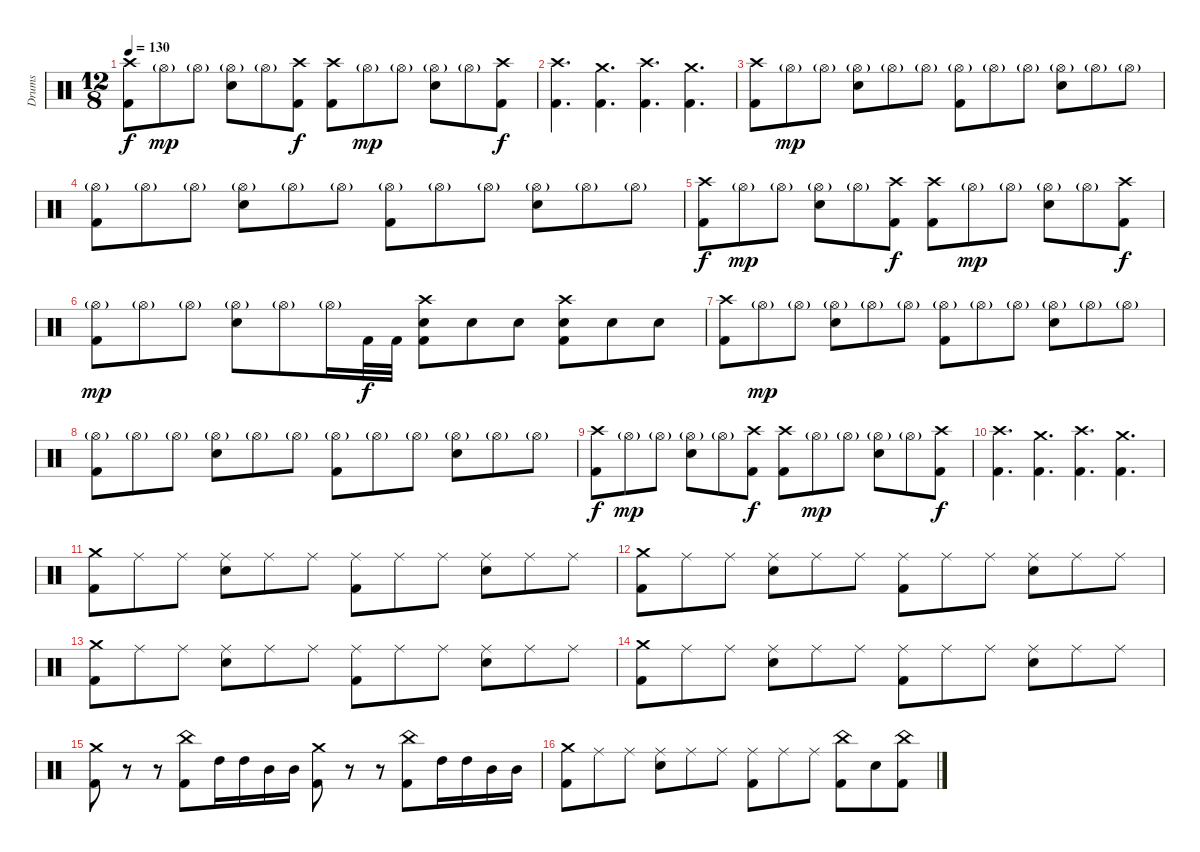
\track ("Drums" "Drums") {instrument percussion}
\staff {score}
\articulation defaults
\ts (12 8)
\tempo 130
\clef neutral
\ks c
("Crash high (hit)" "Kick (hit) 2").8{dy f} "Hi-Hat (open)"{g}.8{dy mp} "Hi-Hat (open)"{g}.8 ("Hi-Hat (open)"{g} "Electric Snare (hit)").8 "Hi-Hat (open)"{g}.8 ("Crash high (hit)" "Kick (hit) 2").8{dy f} ("Crash high (hit)" "Kick (hit) 2").8 "Hi-Hat (open)"{g}.8{dy mp} "Hi-Hat (open)"{g}.8 ("Hi-Hat (open)"{g} "Electric Snare (hit)").8 "Hi-Hat (open)"{g}.8 ("Crash high (hit)" "Kick (hit) 2").8{dy f} |
("Crash high (hit)" "Kick (hit) 2").4{d} ("Crash medium (hit)" "Kick (hit) 2").4{d} ("Crash high (hit)" "Kick (hit) 2").4{d} ("Crash medium (hit)" "Kick (hit) 2").4{d} |
("Crash high (hit)" "Kick (hit) 2").8 "Hi-Hat (open)"{g}.8{dy mp} "Hi-Hat (open)"{g}.8 ("Hi-Hat (open)"{g} "Electric Snare (hit)").8 "Hi-Hat (open)"{g}.8 "Hi-Hat (open)"{g}.8 ("Hi-Hat (open)"{g} "Kick (hit) 2").8 "Hi-Hat (open)"{g}.8 "Hi-Hat (open)"{g}.8 ("Hi-Hat (open)"{g} "Electric Snare (hit)").8 "Hi-Hat (open)"{g}.8 "Hi-Hat (open)"{g}.8 |
("Hi-Hat (open)"{g} "Kick (hit) 2").8 "Hi-Hat (open)"{g}.8 "Hi-Hat (open)"{g}.8 ("Hi-Hat (open)"{g} "Electric Snare (hit)").8 "Hi-Hat (open)"{g}.8 "Hi-Hat (open)"{g}.8 ("Hi-Hat (open)"{g} "Kick (hit) 2").8 "Hi-Hat (open)"{g}.8 "Hi-Hat (open)"{g}.8 ("Hi-Hat (open)"{g} "Electric Snare (hit)").8 "Hi-Hat (open)"{g}.8 "Hi-Hat (open)"{g}.8 |
("Crash high (hit)" "Kick (hit) 2").8{dy f} "Hi-Hat (open)"{g}.8{dy mp} "Hi-Hat (open)"{g}.8 ("Hi-Hat (open)"{g} "Electric Snare (hit)").8 "Hi-Hat (open)"{g}.8 ("Crash high (hit)" "Kick (hit) 2").8{dy f} ("Crash high (hit)" "Kick (hit) 2").8 "Hi-Hat (open)"{g}.8{dy mp} "Hi-Hat (open)"{g}.8 ("Hi-Hat (open)"{g} "Electric Snare (hit)").8 "Hi-Hat (open)"{g}.8 ("Crash high (hit)" "Kick (hit) 2").8{dy f} |
("Hi-Hat (open)"{g} "Kick (hit) 2").8{dy mp} "Hi-Hat (open)"{g}.8 "Hi-Hat (open)"{g}.8 ("Hi-Hat (open)"{g} "Electric Snare (hit)").8 "Hi-Hat (open)"{g}.8 "Hi-Hat (open)"{g}.16 "Kick (hit) 2".32{dy f} "Kick (hit) 2".32 ("Crash high (hit)" "Electric Snare (hit)" "Kick (hit) 2").8 "Electric Snare (hit)".8 "Electric Snare (hit)".8 ("Crash high (hit)" "Electric Snare (hit)" "Kick (hit) 2").8 "Electric Snare (hit)".8 "Electric Snare (hit)".8 |
("Crash high (hit)" "Kick (hit) 2").8 "Hi-Hat (open)"{g}.8{dy mp} "Hi-Hat (open)"{g}.8 ("Hi-Hat (open)"{g} "Electric Snare (hit)").8 "Hi-Hat (open)"{g}.8 "Hi-Hat (open)"{g}.8 ("Hi-Hat (open)"{g} "Kick (hit) 2").8 "Hi-Hat (open)"{g}.8 "Hi-Hat (open)"{g}.8 ("Hi-Hat (open)"{g} "Electric Snare (hit)").8 "Hi-Hat (open)"{g}.8 "Hi-Hat (open)"{g}.8 |
("Hi-Hat (open)"{g} "Kick (hit) 2").8 "Hi-Hat (open)"{g}.8 "Hi-Hat (open)"{g}.8 ("Hi-Hat (open)"{g} "Electric Snare (hit)").8 "Hi-Hat (open)"{g}.8 "Hi-Hat (open)"{g}.8 ("Hi-Hat (open)"{g} "Kick (hit) 2").8 "Hi-Hat (open)"{g}.8 "Hi-Hat (open)"{g}.8 ("Hi-Hat (open)"{g} "Electric Snare (hit)").8 "Hi-Hat (open)"{g}.8 "Hi-Hat (open)"{g}.8 |
("Crash high (hit)" "Kick (hit) 2").8{dy f} "Hi-Hat (open)"{g}.8{dy mp} "Hi-Hat (open)"{g}.8 ("Hi-Hat (open)"{g} "Electric Snare (hit)").8 "Hi-Hat (open)"{g}.8 ("Crash high (hit)" "Kick (hit) 2").8{dy f} ("Crash high (hit)" "Kick (hit) 2").8 "Hi-Hat (open)"{g}.8{dy mp} "Hi-Hat (open)"{g}.8 ("Hi-Hat (open)"{g} "Electric Snare (hit)").8 "Hi-Hat (open)"{g}.8 ("Crash high (hit)" "Kick (hit) 2").8{dy f} |
("Crash high (hit)" "Kick (hit) 2").4{d} ("Crash medium (hit)" "Kick (hit) 2").4{d} ("Crash high (hit)" "Kick (hit) 2").4{d} ("Crash medium (hit)" "Kick (hit) 2").4{d} |
("Crash medium (hit)" "Kick (hit) 2").8 "Ride (middle)".8 "Ride (middle)".8 ("Ride (middle)" "Electric Snare (hit)").8 "Ride (middle)".8 "Ride (middle)".8 ("Ride (middle)" "Kick (hit) 2").8 "Ride (middle)".8 "Ride (middle)".8 ("Ride (middle)" "Electric Snare (hit)").8 "Ride (middle)".8 "Ride (middle)".8 |
("Crash medium (hit)" "Kick (hit) 2").8 "Ride (middle)".8 "Ride (middle)".8 ("Ride (middle)" "Electric Snare (hit)").8 "Ride (middle)".8 "Ride (middle)".8 ("Ride (middle)" "Kick (hit) 2").8 "Ride (middle)".8 "Ride (middle)".8 ("Ride (middle)" "Electric Snare (hit)").8 "Ride (middle)".8 "Ride (middle)".8 |
("Crash medium (hit)" "Kick (hit) 2").8 "Ride (middle)".8 "Ride (middle)".8 ("Ride (middle)" "Electric Snare (hit)").8 "Ride (middle)".8 "Ride (middle)".8 ("Ride (middle)" "Kick (hit) 2").8 "Ride (middle)".8 "Ride (middle)".8 ("Ride (middle)" "Electric Snare (hit)").8 "Ride (middle)".8 "Ride (middle)".8 |
("Crash medium (hit)" "Kick (hit) 2").8 "Ride (middle)".8 "Ride (middle)".8 ("Ride (middle)" "Electric Snare (hit)").8 "Ride (middle)".8 "Ride (middle)".8 ("Ride (middle)" "Kick (hit) 2").8 "Ride (middle)".8 "Ride (middle)".8 ("Ride (middle)" "Electric Snare (hit)").8 "Ride (middle)".8 "Ride (middle)".8 |
("Crash medium (hit)" "Kick (hit) 2").8 r.8 r.8 ("China (hit)" "Kick (hit) 2").8 "High Tom (hit)".16 "High Tom (hit)".16 "Mid Tom (hit)".16 "Mid Tom (hit)".16 ("Crash medium (hit)" "Kick (hit) 2").8 r.8 r.8 ("China (hit)" "Kick (hit) 2").8 "High Tom (hit)".16 "High Tom (hit)".16 "Mid Tom (hit)".16 "Mid Tom (hit)".16 |
("Crash medium (hit)" "Kick (hit) 2").8 "Ride (middle)".8 "Ride (middle)".8 ("Ride (middle)" "Electric Snare (hit)").8 "Ride (middle)".8 "Ride (middle)".8 ("Ride (middle)" "Kick (hit) 2").8 "Ride (middle)".8 "Ride (middle)".8 ("China (hit)" "Kick (hit) 2").8 "Electric Snare (hit)".8 ("China (hit)" "Kick (hit) 2").8
